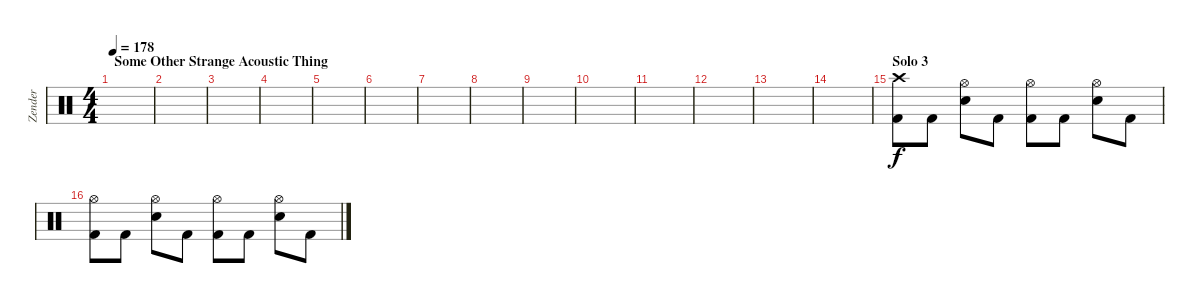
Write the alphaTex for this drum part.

\track ("Zender" "Zender") {instrument percussion}
\staff {score}
\articulation defaults
\ts (4 4)
\section ("" "Some Other Strange Acoustic Thing")
\tempo 178
\clef neutral
\ks c
|
|
|
|
|
|
|
|
|
|
|
|
|
|
\section ("" "Solo 3")
("Crash high (hit)" "Kick (hit) 2").8 "Kick (hit) 2".8 ("Electric Snare (hit)" "Hi-Hat (open)").8 "Kick (hit) 2".8 ("Hi-Hat (open)" "Kick (hit) 2").8 "Kick (hit) 2".8 ("Electric Snare (hit)" "Hi-Hat (open)").8 "Kick (hit) 2".8 |
("Hi-Hat (open)" "Kick (hit) 2").8 "Kick (hit) 2".8 ("Electric Snare (hit)" "Hi-Hat (open)").8 "Kick (hit) 2".8 ("Hi-Hat (open)" "Kick (hit) 2").8 "Kick (hit) 2".8 ("Electric Snare (hit)" "Hi-Hat (open)").8 "Kick (hit) 2".8
